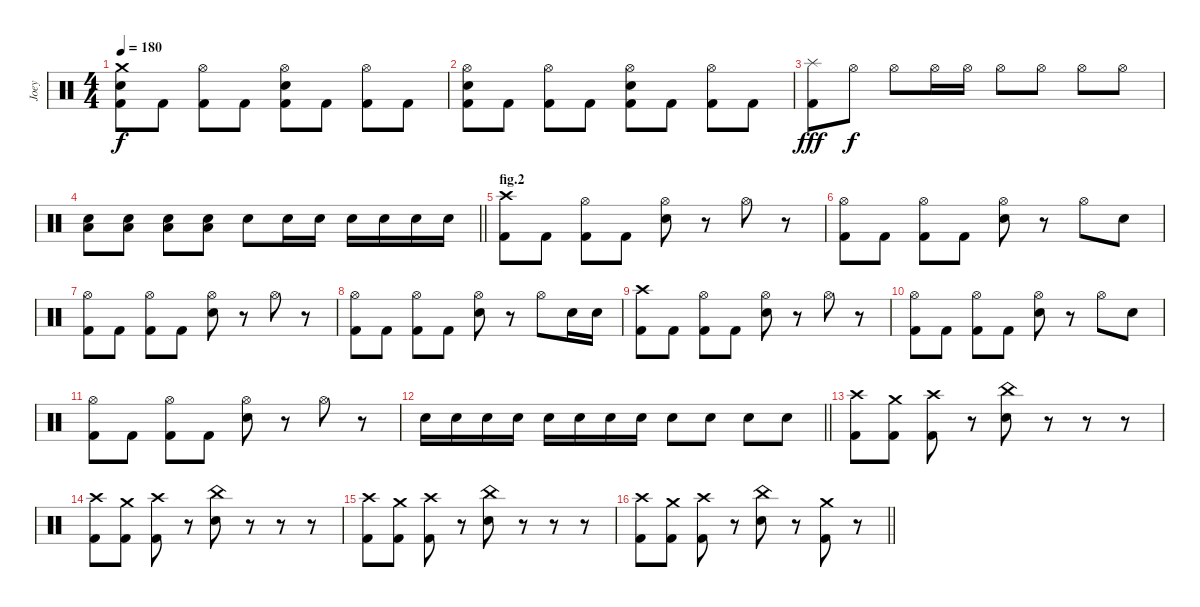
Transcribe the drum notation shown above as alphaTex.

\track ("Joey" "Joey") {instrument percussion}
\staff {score}
\articulation defaults
\ts (4 4)
\tempo 180
\clef neutral
\ks c
("Crash medium (hit)" "Electric Snare (hit)" "Kick (hit) 2").8{dy f} "Kick (hit) 2".8 ("Hi-Hat (open)" "Kick (hit) 2").8 "Kick (hit) 2".8 ("Hi-Hat (open)" "Electric Snare (hit)" "Kick (hit) 2").8 "Kick (hit) 2".8 ("Hi-Hat (open)" "Kick (hit) 2").8 "Kick (hit) 2".8 |
("Hi-Hat (open)" "Electric Snare (hit)" "Kick (hit) 2").8 "Kick (hit) 2".8 ("Hi-Hat (open)" "Kick (hit) 2").8 "Kick (hit) 2".8 ("Hi-Hat (open)" "Electric Snare (hit)" "Kick (hit) 2").8 "Kick (hit) 2".8 ("Hi-Hat (open)" "Kick (hit) 2").8 "Kick (hit) 2".8 |
("Splash (hit)" "Kick (hit) 2").8{dy fff} "Hi-Hat (open)".8{dy f} "Hi-Hat (open)".8 "Hi-Hat (open)".16 "Hi-Hat (open)".16 "Hi-Hat (open)".8 "Hi-Hat (open)".8 "Hi-Hat (open)".8 "Hi-Hat (open)".8 |
\barLineRight lightlight
("Electric Snare (hit)" "Low Floor Tom (hit)").8 ("Electric Snare (hit)" "Low Floor Tom (hit)").8 ("Electric Snare (hit)" "Low Floor Tom (hit)").8 ("Electric Snare (hit)" "Low Floor Tom (hit)").8 "Electric Snare (hit)".8 "Electric Snare (hit)".16 "Electric Snare (hit)".16 "Electric Snare (hit)".16 "Electric Snare (hit)".16 "Electric Snare (hit)".16 "Electric Snare (hit)".16 |
\section ("" "fig.2")
("Crash high (hit)" "Kick (hit) 2").8 "Kick (hit) 2".8 ("Hi-Hat (open)" "Kick (hit) 2").8 "Kick (hit) 2".8 ("Hi-Hat (open)" "Electric Snare (hit)").8 r.8 "Hi-Hat (open)".8 r.8 |
("Hi-Hat (open)" "Kick (hit) 2").8 "Kick (hit) 2".8 ("Hi-Hat (open)" "Kick (hit) 2").8 "Kick (hit) 2".8 ("Hi-Hat (open)" "Electric Snare (hit)").8 r.8 "Hi-Hat (open)".8 "Electric Snare (hit)".8 |
("Hi-Hat (open)" "Kick (hit) 2").8 "Kick (hit) 2".8 ("Hi-Hat (open)" "Kick (hit) 2").8 "Kick (hit) 2".8 ("Hi-Hat (open)" "Electric Snare (hit)").8 r.8 "Hi-Hat (open)".8 r.8 |
("Hi-Hat (open)" "Kick (hit) 2").8 "Kick (hit) 2".8 ("Hi-Hat (open)" "Kick (hit) 2").8 "Kick (hit) 2".8 ("Hi-Hat (open)" "Electric Snare (hit)").8 r.8 "Hi-Hat (open)".8 "Electric Snare (hit)".16 "Electric Snare (hit)".16 |
("Crash high (hit)" "Kick (hit) 2").8 "Kick (hit) 2".8 ("Hi-Hat (open)" "Kick (hit) 2").8 "Kick (hit) 2".8 ("Hi-Hat (open)" "Electric Snare (hit)").8 r.8 "Hi-Hat (open)".8 r.8 |
("Hi-Hat (open)" "Kick (hit) 2").8 "Kick (hit) 2".8 ("Hi-Hat (open)" "Kick (hit) 2").8 "Kick (hit) 2".8 ("Hi-Hat (open)" "Electric Snare (hit)").8 r.8 "Hi-Hat (open)".8 "Electric Snare (hit)".8 |
("Hi-Hat (open)" "Kick (hit) 2").8 "Kick (hit) 2".8 ("Hi-Hat (open)" "Kick (hit) 2").8 "Kick (hit) 2".8 ("Hi-Hat (open)" "Electric Snare (hit)").8 r.8 "Hi-Hat (open)".8 r.8 |
\barLineRight lightlight "Electric Snare (hit)".16 "Electric Snare (hit)".16 "Electric Snare (hit)".16 "Electric Snare (hit)".16 "Electric Snare (hit)".16 "Electric Snare (hit)".16 "Electric Snare (hit)".16 "Electric Snare (hit)".16 "Electric Snare (hit)".8 "Electric Snare (hit)".8 "Electric Snare (hit)".8 "Electric Snare (hit)".8
|
\section ("" "")
("Crash high (hit)" "Kick (hit) 2").8 ("Crash medium (hit)" "Kick (hit) 2").8 ("Crash high (hit)" "Kick (hit) 2").8 r.8 ("China (hit)" "Electric Snare (hit)").8 r.8 r.8 r.8 |
("Crash high (hit)" "Kick (hit) 2").8 ("Crash medium (hit)" "Kick (hit) 2").8 ("Crash high (hit)" "Kick (hit) 2").8 r.8 ("China (hit)" "Electric Snare (hit)").8 r.8 r.8 r.8 |
("Crash high (hit)" "Kick (hit) 2").8 ("Crash medium (hit)" "Kick (hit) 2").8 ("Crash high (hit)" "Kick (hit) 2").8 r.8 ("China (hit)" "Electric Snare (hit)").8 r.8 r.8 r.8 |
\barLineRight lightlight
("Crash high (hit)" "Kick (hit) 2").8 ("Crash medium (hit)" "Kick (hit) 2").8 ("Crash high (hit)" "Kick (hit) 2").8 r.8 ("China (hit)" "Electric Snare (hit)").8 r.8 ("Crash medium (hit)" "Kick (hit) 2").8 r.8
